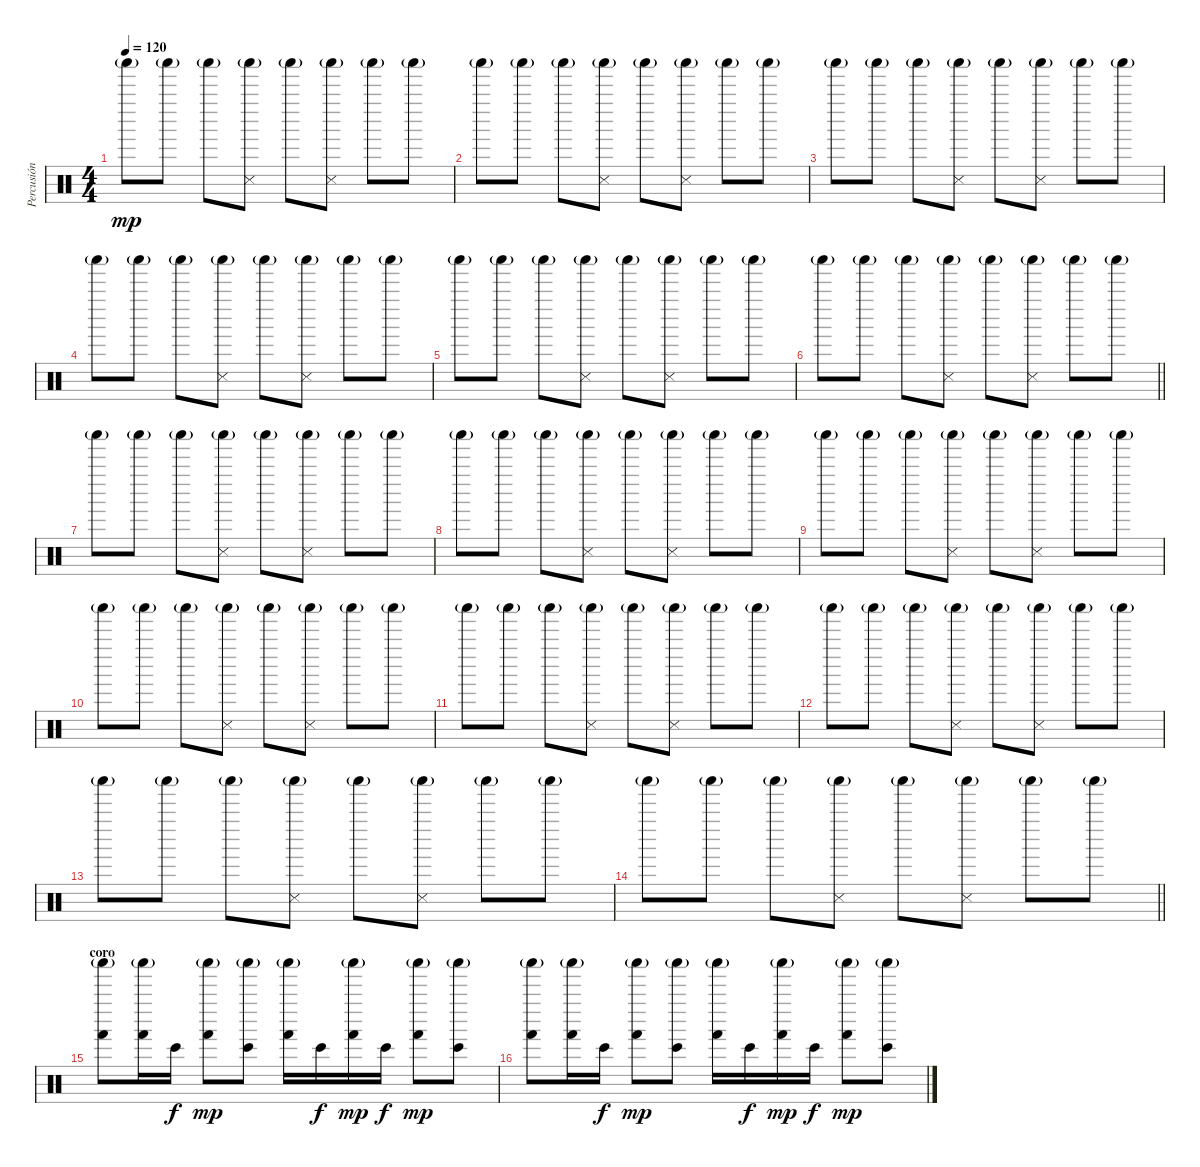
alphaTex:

\track ("Percusión" "Percusión") {instrument percussion}
\staff {score}
\articulation defaults
\ts (4 4)
\tempo 120
\clef neutral
\ks c "Shaker (hit)"{g}.8{dy mp} "Shaker (hit)"{g}.8 "Shaker (hit)"{g}.8
("Snare (side stick) 3" "Shaker (hit)"{g}).8 "Shaker (hit)"{g}.8 ("Snare (side stick) 3" "Shaker (hit)"{g}).8 "Shaker (hit)"{g}.8 "Shaker (hit)"{g}.8 |
"Shaker (hit)"{g}.8 "Shaker (hit)"{g}.8 "Shaker (hit)"{g}.8 ("Snare (side stick) 3" "Shaker (hit)"{g}).8 "Shaker (hit)"{g}.8 ("Snare (side stick) 3" "Shaker (hit)"{g}).8 "Shaker (hit)"{g}.8 "Shaker (hit)"{g}.8 |
"Shaker (hit)"{g}.8 "Shaker (hit)"{g}.8 "Shaker (hit)"{g}.8 ("Snare (side stick) 3" "Shaker (hit)"{g}).8 "Shaker (hit)"{g}.8 ("Snare (side stick) 3" "Shaker (hit)"{g}).8 "Shaker (hit)"{g}.8 "Shaker (hit)"{g}.8 |
"Shaker (hit)"{g}.8 "Shaker (hit)"{g}.8 "Shaker (hit)"{g}.8 ("Snare (side stick) 3" "Shaker (hit)"{g}).8 "Shaker (hit)"{g}.8 ("Snare (side stick) 3" "Shaker (hit)"{g}).8 "Shaker (hit)"{g}.8 "Shaker (hit)"{g}.8 |
"Shaker (hit)"{g}.8 "Shaker (hit)"{g}.8 "Shaker (hit)"{g}.8 ("Snare (side stick) 3" "Shaker (hit)"{g}).8 "Shaker (hit)"{g}.8 ("Snare (side stick) 3" "Shaker (hit)"{g}).8 "Shaker (hit)"{g}.8 "Shaker (hit)"{g}.8 |
\barLineRight lightlight "Shaker (hit)"{g}.8 "Shaker (hit)"{g}.8 "Shaker (hit)"{g}.8
("Snare (side stick) 3" "Shaker (hit)"{g}).8 "Shaker (hit)"{g}.8 ("Snare (side stick) 3" "Shaker (hit)"{g}).8 "Shaker (hit)"{g}.8 "Shaker (hit)"{g}.8 |
\section ("" "")
"Shaker (hit)"{g}.8 "Shaker (hit)"{g}.8 "Shaker (hit)"{g}.8 ("Snare (side stick) 3" "Shaker (hit)"{g}).8 "Shaker (hit)"{g}.8 ("Snare (side stick) 3" "Shaker (hit)"{g}).8 "Shaker (hit)"{g}.8 "Shaker (hit)"{g}.8 |
"Shaker (hit)"{g}.8 "Shaker (hit)"{g}.8 "Shaker (hit)"{g}.8 ("Snare (side stick) 3" "Shaker (hit)"{g}).8 "Shaker (hit)"{g}.8 ("Snare (side stick) 3" "Shaker (hit)"{g}).8 "Shaker (hit)"{g}.8 "Shaker (hit)"{g}.8 |
"Shaker (hit)"{g}.8 "Shaker (hit)"{g}.8 "Shaker (hit)"{g}.8 ("Snare (side stick) 3" "Shaker (hit)"{g}).8 "Shaker (hit)"{g}.8 ("Snare (side stick) 3" "Shaker (hit)"{g}).8 "Shaker (hit)"{g}.8 "Shaker (hit)"{g}.8 |
"Shaker (hit)"{g}.8 "Shaker (hit)"{g}.8 "Shaker (hit)"{g}.8 ("Snare (side stick) 3" "Shaker (hit)"{g}).8 "Shaker (hit)"{g}.8 ("Snare (side stick) 3" "Shaker (hit)"{g}).8 "Shaker (hit)"{g}.8 "Shaker (hit)"{g}.8 |
"Shaker (hit)"{g}.8 "Shaker (hit)"{g}.8 "Shaker (hit)"{g}.8 ("Snare (side stick) 3" "Shaker (hit)"{g}).8 "Shaker (hit)"{g}.8 ("Snare (side stick) 3" "Shaker (hit)"{g}).8 "Shaker (hit)"{g}.8 "Shaker (hit)"{g}.8 |
"Shaker (hit)"{g}.8 "Shaker (hit)"{g}.8 "Shaker (hit)"{g}.8 ("Snare (side stick) 3" "Shaker (hit)"{g}).8 "Shaker (hit)"{g}.8 ("Snare (side stick) 3" "Shaker (hit)"{g}).8 "Shaker (hit)"{g}.8 "Shaker (hit)"{g}.8 |
"Shaker (hit)"{g}.8 "Shaker (hit)"{g}.8 "Shaker (hit)"{g}.8 ("Snare (side stick) 3" "Shaker (hit)"{g}).8 "Shaker (hit)"{g}.8 ("Snare (side stick) 3" "Shaker (hit)"{g}).8 "Shaker (hit)"{g}.8 "Shaker (hit)"{g}.8 |
\barLineRight lightlight "Shaker (hit)"{g}.8 "Shaker (hit)"{g}.8 "Shaker (hit)"{g}.8
("Snare (side stick) 3" "Shaker (hit)"{g}).8 "Shaker (hit)"{g}.8 ("Snare (side stick) 3" "Shaker (hit)"{g}).8 "Shaker (hit)"{g}.8 "Shaker (hit)"{g}.8 |
\section ("" "coro")
("Hand (hit)" "Shaker (hit)"{g}).8 ("Hand (hit)" "Shaker (hit)"{g}).16 "Bongo High (hit)".16{dy f} ("Hand (hit)" "Shaker (hit)"{g}).8{dy mp} ("Bongo High (hit)" "Shaker (hit)"{g}).8 ("Hand (hit)" "Shaker (hit)"{g}).16 "Bongo High (hit)".16{dy f} ("Hand (hit)" "Shaker (hit)"{g}).16{dy mp} "Bongo High (hit)".16{dy f} ("Hand (hit)" "Shaker (hit)"{g}).8{dy mp} ("Bongo High (hit)" "Shaker (hit)"{g}).8 |
("Hand (hit)" "Shaker (hit)"{g}).8 ("Hand (hit)" "Shaker (hit)"{g}).16 "Bongo High (hit)".16{dy f} ("Hand (hit)" "Shaker (hit)"{g}).8{dy mp} ("Bongo High (hit)" "Shaker (hit)"{g}).8 ("Hand (hit)" "Shaker (hit)"{g}).16 "Bongo High (hit)".16{dy f} ("Hand (hit)" "Shaker (hit)"{g}).16{dy mp} "Bongo High (hit)".16{dy f} ("Hand (hit)" "Shaker (hit)"{g}).8{dy mp} ("Bongo High (hit)" "Shaker (hit)"{g}).8
